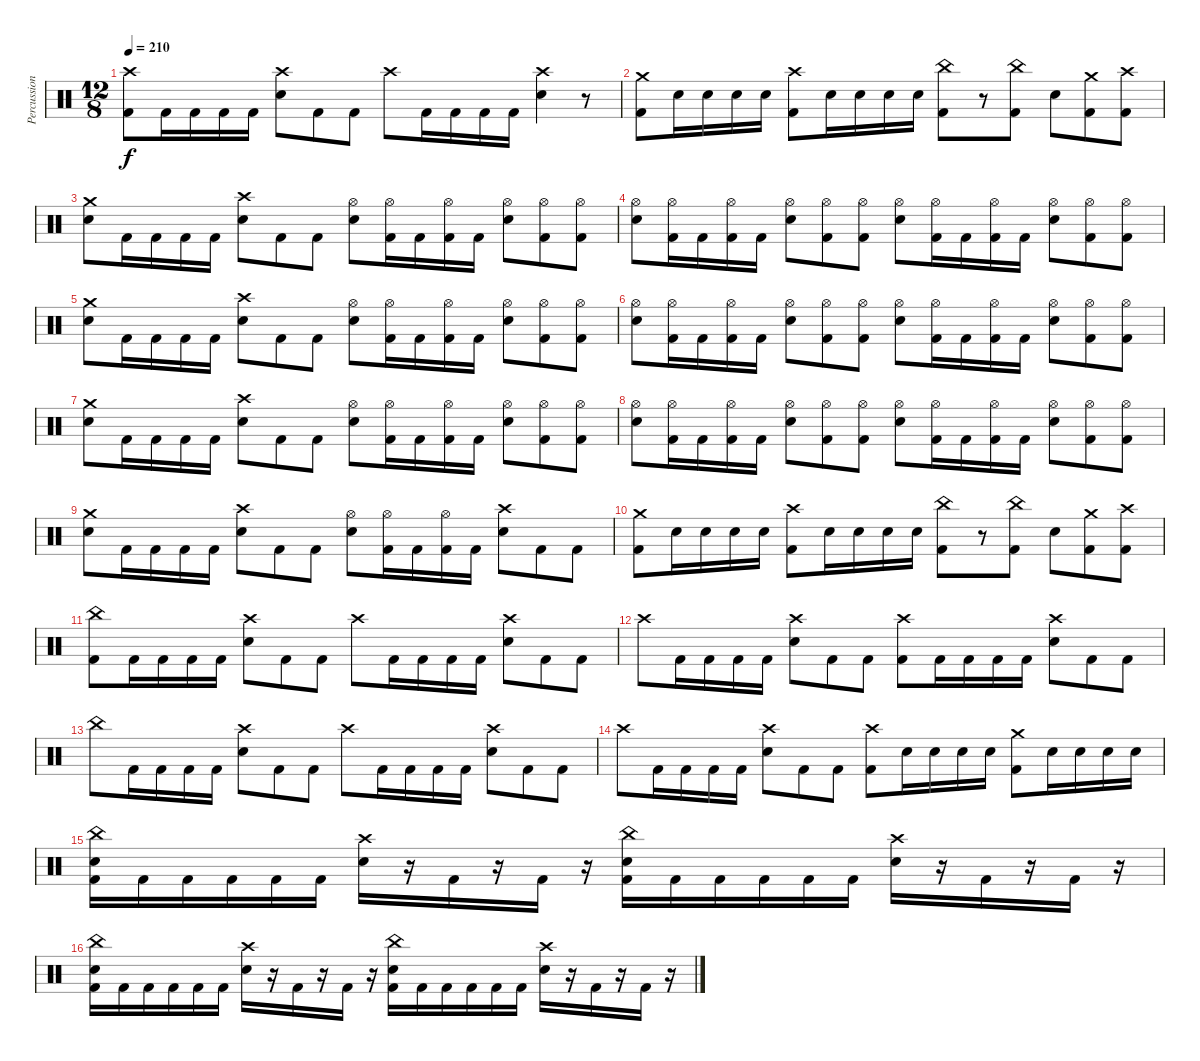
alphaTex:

\track ("Percussion" "Percussion") {instrument percussion}
\staff {score}
\articulation defaults
\ts (12 8)
\tempo 210
\clef neutral
\ks c
("Crash high (hit)" "Kick (hit) 2").8{dy f} "Kick (hit) 2".16 "Kick (hit) 2".16 "Kick (hit) 2".16 "Kick (hit) 2".16 ("Crash high (hit)" "Electric Snare (hit)").8 "Kick (hit) 2".8 "Kick (hit) 2".8 "Crash high (hit)".8 "Kick (hit) 2".16 "Kick (hit) 2".16 "Kick (hit) 2".16 "Kick (hit) 2".16 ("Crash high (hit)" "Electric Snare (hit)").4 r.8 |
("Crash medium (hit)" "Kick (hit) 2").8 "Electric Snare (hit)".16 "Electric Snare (hit)".16 "Electric Snare (hit)".16 "Electric Snare (hit)".16 ("Crash high (hit)" "Kick (hit) 2").8 "Electric Snare (hit)".16 "Electric Snare (hit)".16 "Electric Snare (hit)".16 "Electric Snare (hit)".16 ("China (hit)" "Kick (hit) 2").8 r.8 ("China (hit)" "Kick (hit) 2").8 "Electric Snare (hit)".8 ("Crash medium (hit)" "Kick (hit) 2").8 ("Crash high (hit)" "Kick (hit) 2").8 |
("Crash medium (hit)" "Electric Snare (hit)").8 "Kick (hit) 2".16 "Kick (hit) 2".16 "Kick (hit) 2".16 "Kick (hit) 2".16 ("Crash high (hit)" "Electric Snare (hit)").8 "Kick (hit) 2".8 "Kick (hit) 2".8 ("Hi-Hat (open)" "Electric Snare (hit)").8 ("Hi-Hat (open)" "Kick (hit) 2").16 "Kick (hit) 2".16 ("Hi-Hat (open)" "Kick (hit) 2").16 "Kick (hit) 2".16 ("Hi-Hat (open)" "Electric Snare (hit)").8 ("Hi-Hat (open)" "Kick (hit) 2").8 ("Hi-Hat (open)" "Kick (hit) 2").8 |
("Hi-Hat (open)" "Electric Snare (hit)").8 ("Hi-Hat (open)" "Kick (hit) 2").16 "Kick (hit) 2".16 ("Hi-Hat (open)" "Kick (hit) 2").16 "Kick (hit) 2".16 ("Hi-Hat (open)" "Electric Snare (hit)").8 ("Hi-Hat (open)" "Kick (hit) 2").8 ("Hi-Hat (open)" "Kick (hit) 2").8 ("Hi-Hat (open)" "Electric Snare (hit)").8 ("Hi-Hat (open)" "Kick (hit) 2").16 "Kick (hit) 2".16 ("Hi-Hat (open)" "Kick (hit) 2").16 "Kick (hit) 2".16 ("Hi-Hat (open)" "Electric Snare (hit)").8 ("Hi-Hat (open)" "Kick (hit) 2").8 ("Hi-Hat (open)" "Kick (hit) 2").8 |
("Crash medium (hit)" "Electric Snare (hit)").8 "Kick (hit) 2".16 "Kick (hit) 2".16 "Kick (hit) 2".16 "Kick (hit) 2".16 ("Crash high (hit)" "Electric Snare (hit)").8 "Kick (hit) 2".8 "Kick (hit) 2".8 ("Hi-Hat (open)" "Electric Snare (hit)").8 ("Hi-Hat (open)" "Kick (hit) 2").16 "Kick (hit) 2".16 ("Hi-Hat (open)" "Kick (hit) 2").16 "Kick (hit) 2".16 ("Hi-Hat (open)" "Electric Snare (hit)").8 ("Hi-Hat (open)" "Kick (hit) 2").8 ("Hi-Hat (open)" "Kick (hit) 2").8 |
("Hi-Hat (open)" "Electric Snare (hit)").8 ("Hi-Hat (open)" "Kick (hit) 2").16 "Kick (hit) 2".16 ("Hi-Hat (open)" "Kick (hit) 2").16 "Kick (hit) 2".16 ("Hi-Hat (open)" "Electric Snare (hit)").8 ("Hi-Hat (open)" "Kick (hit) 2").8 ("Hi-Hat (open)" "Kick (hit) 2").8 ("Hi-Hat (open)" "Electric Snare (hit)").8 ("Hi-Hat (open)" "Kick (hit) 2").16 "Kick (hit) 2".16 ("Hi-Hat (open)" "Kick (hit) 2").16 "Kick (hit) 2".16 ("Hi-Hat (open)" "Electric Snare (hit)").8 ("Hi-Hat (open)" "Kick (hit) 2").8 ("Hi-Hat (open)" "Kick (hit) 2").8 |
("Crash medium (hit)" "Electric Snare (hit)").8 "Kick (hit) 2".16 "Kick (hit) 2".16 "Kick (hit) 2".16 "Kick (hit) 2".16 ("Crash high (hit)" "Electric Snare (hit)").8 "Kick (hit) 2".8 "Kick (hit) 2".8 ("Hi-Hat (open)" "Electric Snare (hit)").8 ("Hi-Hat (open)" "Kick (hit) 2").16 "Kick (hit) 2".16 ("Hi-Hat (open)" "Kick (hit) 2").16 "Kick (hit) 2".16 ("Hi-Hat (open)" "Electric Snare (hit)").8 ("Hi-Hat (open)" "Kick (hit) 2").8 ("Hi-Hat (open)" "Kick (hit) 2").8 |
("Hi-Hat (open)" "Electric Snare (hit)").8 ("Hi-Hat (open)" "Kick (hit) 2").16 "Kick (hit) 2".16 ("Hi-Hat (open)" "Kick (hit) 2").16 "Kick (hit) 2".16 ("Hi-Hat (open)" "Electric Snare (hit)").8 ("Hi-Hat (open)" "Kick (hit) 2").8 ("Hi-Hat (open)" "Kick (hit) 2").8 ("Hi-Hat (open)" "Electric Snare (hit)").8 ("Hi-Hat (open)" "Kick (hit) 2").16 "Kick (hit) 2".16 ("Hi-Hat (open)" "Kick (hit) 2").16 "Kick (hit) 2".16 ("Hi-Hat (open)" "Electric Snare (hit)").8 ("Hi-Hat (open)" "Kick (hit) 2").8 ("Hi-Hat (open)" "Kick (hit) 2").8 |
("Crash medium (hit)" "Electric Snare (hit)").8 "Kick (hit) 2".16 "Kick (hit) 2".16 "Kick (hit) 2".16 "Kick (hit) 2".16 ("Crash high (hit)" "Electric Snare (hit)").8 "Kick (hit) 2".8 "Kick (hit) 2".8 ("Hi-Hat (open)" "Electric Snare (hit)").8 ("Hi-Hat (open)" "Kick (hit) 2").16 "Kick (hit) 2".16 ("Hi-Hat (open)" "Kick (hit) 2").16 "Kick (hit) 2".16 ("Crash high (hit)" "Electric Snare (hit)").8 "Kick (hit) 2".8 "Kick (hit) 2".8 |
("Crash medium (hit)" "Kick (hit) 2").8 "Electric Snare (hit)".16 "Electric Snare (hit)".16 "Electric Snare (hit)".16 "Electric Snare (hit)".16 ("Crash high (hit)" "Kick (hit) 2").8 "Electric Snare (hit)".16 "Electric Snare (hit)".16 "Electric Snare (hit)".16 "Electric Snare (hit)".16 ("China (hit)" "Kick (hit) 2").8 r.8 ("China (hit)" "Kick (hit) 2").8 "Electric Snare (hit)".8 ("Crash medium (hit)" "Kick (hit) 2").8 ("Crash high (hit)" "Kick (hit) 2").8 |
("China (hit)" "Kick (hit) 2").8 "Kick (hit) 2".16 "Kick (hit) 2".16 "Kick (hit) 2".16 "Kick (hit) 2".16 ("Crash high (hit)" "Electric Snare (hit)").8 "Kick (hit) 2".8 "Kick (hit) 2".8 "Crash high (hit)".8 "Kick (hit) 2".16 "Kick (hit) 2".16 "Kick (hit) 2".16 "Kick (hit) 2".16 ("Crash high (hit)" "Electric Snare (hit)").8 "Kick (hit) 2".8 "Kick (hit) 2".8 |
"Crash high (hit)".8 "Kick (hit) 2".16 "Kick (hit) 2".16 "Kick (hit) 2".16 "Kick (hit) 2".16 ("Crash high (hit)" "Electric Snare (hit)").8 "Kick (hit) 2".8 "Kick (hit) 2".8 ("Crash high (hit)" "Kick (hit) 2").8 "Kick (hit) 2".16 "Kick (hit) 2".16 "Kick (hit) 2".16 "Kick (hit) 2".16 ("Crash high (hit)" "Electric Snare (hit)").8 "Kick (hit) 2".8 "Kick (hit) 2".8 |
"China (hit)".8 "Kick (hit) 2".16 "Kick (hit) 2".16 "Kick (hit) 2".16 "Kick (hit) 2".16 ("Crash high (hit)" "Electric Snare (hit)").8 "Kick (hit) 2".8 "Kick (hit) 2".8 "Crash high (hit)".8 "Kick (hit) 2".16 "Kick (hit) 2".16 "Kick (hit) 2".16 "Kick (hit) 2".16 ("Crash high (hit)" "Electric Snare (hit)").8 "Kick (hit) 2".8 "Kick (hit) 2".8 |
"Crash high (hit)".8 "Kick (hit) 2".16 "Kick (hit) 2".16 "Kick (hit) 2".16 "Kick (hit) 2".16 ("Crash high (hit)" "Electric Snare (hit)").8 "Kick (hit) 2".8 "Kick (hit) 2".8 ("Crash high (hit)" "Kick (hit) 2").8 "Electric Snare (hit)".16 "Electric Snare (hit)".16 "Electric Snare (hit)".16 "Electric Snare (hit)".16 ("Crash medium (hit)" "Kick (hit) 2").8 "Electric Snare (hit)".16 "Electric Snare (hit)".16 "Electric Snare (hit)".16 "Electric Snare (hit)".16 |
("China (hit)" "Electric Snare (hit)" "Kick (hit) 2").16 "Kick (hit) 2".16 "Kick (hit) 2".16 "Kick (hit) 2".16 "Kick (hit) 2".16 "Kick (hit) 2".16 ("Crash high (hit)" "Electric Snare (hit)").16 r.16 "Kick (hit) 2".16 r.16 "Kick (hit) 2".16 r.16 ("China (hit)" "Electric Snare (hit)" "Kick (hit) 2").16 "Kick (hit) 2".16 "Kick (hit) 2".16 "Kick (hit) 2".16 "Kick (hit) 2".16 "Kick (hit) 2".16 ("Crash high (hit)" "Electric Snare (hit)").16 r.16 "Kick (hit) 2".16 r.16 "Kick (hit) 2".16 r.16 |
("China (hit)" "Electric Snare (hit)" "Kick (hit) 2").16 "Kick (hit) 2".16 "Kick (hit) 2".16 "Kick (hit) 2".16 "Kick (hit) 2".16 "Kick (hit) 2".16 ("Crash high (hit)" "Electric Snare (hit)").16 r.16 "Kick (hit) 2".16 r.16 "Kick (hit) 2".16 r.16 ("China (hit)" "Electric Snare (hit)" "Kick (hit) 2").16 "Kick (hit) 2".16 "Kick (hit) 2".16 "Kick (hit) 2".16 "Kick (hit) 2".16 "Kick (hit) 2".16 ("Crash high (hit)" "Electric Snare (hit)").16 r.16 "Kick (hit) 2".16 r.16 "Kick (hit) 2".16 r.16
